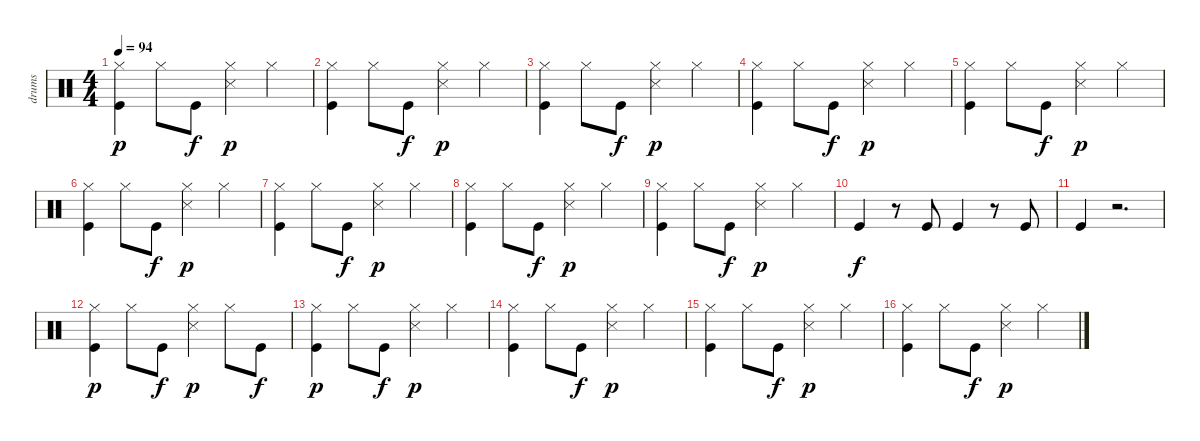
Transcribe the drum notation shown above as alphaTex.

\track ("drums" "drums") {instrument percussion}
\staff {score}
\articulation defaults
\ts (4 4)
\tempo 94
\clef neutral
\ks c
("Kick (hit)" "Hi-Hat (closed)").4{dy p} "Hi-Hat (closed)".8 "Kick (hit)".8{dy f} ("Hi-Hat (closed)" "Snare (side stick) 3").4{dy p} "Hi-Hat (closed)".4 |
("Kick (hit)" "Hi-Hat (closed)").4 "Hi-Hat (closed)".8 "Kick (hit)".8{dy f} ("Hi-Hat (closed)" "Snare (side stick) 3").4{dy p} "Hi-Hat (closed)".4 |
("Kick (hit)" "Hi-Hat (closed)").4 "Hi-Hat (closed)".8 "Kick (hit)".8{dy f} ("Hi-Hat (closed)" "Snare (side stick) 3").4{dy p} "Hi-Hat (closed)".4 |
("Kick (hit)" "Hi-Hat (closed)").4 "Hi-Hat (closed)".8 "Kick (hit)".8{dy f} ("Hi-Hat (closed)" "Snare (side stick) 3").4{dy p} "Hi-Hat (closed)".4 |
("Kick (hit)" "Hi-Hat (closed)").4 "Hi-Hat (closed)".8 "Kick (hit)".8{dy f} ("Hi-Hat (closed)" "Snare (side stick) 3").4{dy p} "Hi-Hat (closed)".4 |
("Kick (hit)" "Hi-Hat (closed)").4 "Hi-Hat (closed)".8 "Kick (hit)".8{dy f} ("Hi-Hat (closed)" "Snare (side stick) 3").4{dy p} "Hi-Hat (closed)".4 |
("Kick (hit)" "Hi-Hat (closed)").4 "Hi-Hat (closed)".8 "Kick (hit)".8{dy f} ("Hi-Hat (closed)" "Snare (side stick) 3").4{dy p} "Hi-Hat (closed)".4 |
("Kick (hit)" "Hi-Hat (closed)").4 "Hi-Hat (closed)".8 "Kick (hit)".8{dy f} ("Hi-Hat (closed)" "Snare (side stick) 3").4{dy p} "Hi-Hat (closed)".4 |
("Kick (hit)" "Hi-Hat (closed)").4 "Hi-Hat (closed)".8 "Kick (hit)".8{dy f} ("Hi-Hat (closed)" "Snare (side stick) 3").4{dy p} "Hi-Hat (closed)".4 |
"Kick (hit)".4{dy f} r.8 "Kick (hit)".8 "Kick (hit)".4 r.8 "Kick (hit)".8 |
"Kick (hit)".4 r.2{d} |
("Kick (hit)" "Hi-Hat (closed)").4{dy p} "Hi-Hat (closed)".8 "Kick (hit)".8{dy f} ("Hi-Hat (closed)" "Snare (side stick) 3").4{dy p} "Hi-Hat (closed)".8 "Kick (hit)".8{dy f} |
("Kick (hit)" "Hi-Hat (closed)").4{dy p} "Hi-Hat (closed)".8 "Kick (hit)".8{dy f} ("Hi-Hat (closed)" "Snare (side stick) 3").4{dy p} "Hi-Hat (closed)".4 |
("Kick (hit)" "Hi-Hat (closed)").4 "Hi-Hat (closed)".8 "Kick (hit)".8{dy f} ("Hi-Hat (closed)" "Snare (side stick) 3").4{dy p} "Hi-Hat (closed)".4 |
("Kick (hit)" "Hi-Hat (closed)").4 "Hi-Hat (closed)".8 "Kick (hit)".8{dy f} ("Hi-Hat (closed)" "Snare (side stick) 3").4{dy p} "Hi-Hat (closed)".4 |
("Kick (hit)" "Hi-Hat (closed)").4 "Hi-Hat (closed)".8 "Kick (hit)".8{dy f} ("Hi-Hat (closed)" "Snare (side stick) 3").4{dy p} "Hi-Hat (closed)".4
